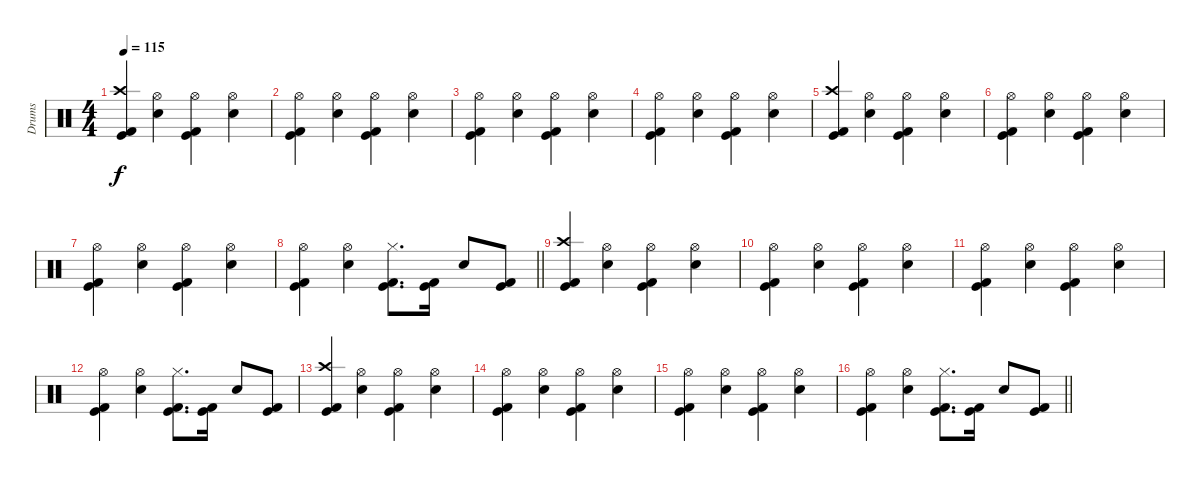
\track ("Drums" "Drums") {instrument percussion}
\staff {score}
\articulation defaults
\ts (4 4)
\section ("" "")
\tempo 115
\clef neutral
\ks c
("Kick (hit) 2" "Crash high (hit)" "Kick (hit)").4{dy f} ("Electric Snare (hit)" "Hi-Hat (open)").4 ("Kick (hit) 2" "Hi-Hat (open)" "Kick (hit)").4 ("Electric Snare (hit)" "Hi-Hat (open)").4 |
("Kick (hit) 2" "Hi-Hat (open)" "Kick (hit)").4 ("Electric Snare (hit)" "Hi-Hat (open)").4 ("Kick (hit) 2" "Hi-Hat (open)" "Kick (hit)").4 ("Electric Snare (hit)" "Hi-Hat (open)").4 |
("Kick (hit) 2" "Hi-Hat (open)" "Kick (hit)").4 ("Electric Snare (hit)" "Hi-Hat (open)").4 ("Kick (hit) 2" "Hi-Hat (open)" "Kick (hit)").4 ("Electric Snare (hit)" "Hi-Hat (open)").4 |
("Kick (hit) 2" "Hi-Hat (open)" "Kick (hit)").4 ("Electric Snare (hit)" "Hi-Hat (open)").4 ("Kick (hit) 2" "Hi-Hat (open)" "Kick (hit)").4 ("Electric Snare (hit)" "Hi-Hat (open)").4 |
("Kick (hit) 2" "Crash high (hit)" "Kick (hit)").4 ("Electric Snare (hit)" "Hi-Hat (open)").4 ("Kick (hit) 2" "Hi-Hat (open)" "Kick (hit)").4 ("Electric Snare (hit)" "Hi-Hat (open)").4 |
("Kick (hit) 2" "Hi-Hat (open)" "Kick (hit)").4 ("Electric Snare (hit)" "Hi-Hat (open)").4 ("Kick (hit) 2" "Hi-Hat (open)" "Kick (hit)").4 ("Electric Snare (hit)" "Hi-Hat (open)").4 |
("Kick (hit) 2" "Hi-Hat (open)" "Kick (hit)").4 ("Electric Snare (hit)" "Hi-Hat (open)").4 ("Kick (hit) 2" "Hi-Hat (open)" "Kick (hit)").4 ("Electric Snare (hit)" "Hi-Hat (open)").4 |
\barLineRight lightlight
("Kick (hit) 2" "Hi-Hat (open)" "Kick (hit)").4 ("Electric Snare (hit)" "Hi-Hat (open)").4 ("Kick (hit) 2" "Hi-Hat (closed)" "Kick (hit)").8{d} ("Kick (hit) 2" "Kick (hit)").16 "Electric Snare (hit)".8 ("Kick (hit) 2" "Kick (hit)").8 |
\section ("" "")
("Kick (hit) 2" "Crash high (hit)" "Kick (hit)").4 ("Electric Snare (hit)" "Hi-Hat (open)").4 ("Kick (hit) 2" "Hi-Hat (open)" "Kick (hit)").4 ("Electric Snare (hit)" "Hi-Hat (open)").4 |
("Kick (hit) 2" "Hi-Hat (open)" "Kick (hit)").4 ("Electric Snare (hit)" "Hi-Hat (open)").4 ("Kick (hit) 2" "Hi-Hat (open)" "Kick (hit)").4 ("Electric Snare (hit)" "Hi-Hat (open)").4 |
("Kick (hit) 2" "Hi-Hat (open)" "Kick (hit)").4 ("Electric Snare (hit)" "Hi-Hat (open)").4 ("Kick (hit) 2" "Hi-Hat (open)" "Kick (hit)").4 ("Electric Snare (hit)" "Hi-Hat (open)").4 |
("Kick (hit) 2" "Hi-Hat (open)" "Kick (hit)").4 ("Electric Snare (hit)" "Hi-Hat (open)").4 ("Kick (hit) 2" "Hi-Hat (closed)" "Kick (hit)").8{d} ("Kick (hit) 2" "Kick (hit)").16 "Electric Snare (hit)".8 ("Kick (hit) 2" "Kick (hit)").8 |
("Kick (hit) 2" "Crash high (hit)" "Kick (hit)").4 ("Electric Snare (hit)" "Hi-Hat (open)").4 ("Kick (hit) 2" "Hi-Hat (open)" "Kick (hit)").4 ("Electric Snare (hit)" "Hi-Hat (open)").4 |
("Kick (hit) 2" "Hi-Hat (open)" "Kick (hit)").4 ("Electric Snare (hit)" "Hi-Hat (open)").4 ("Kick (hit) 2" "Hi-Hat (open)" "Kick (hit)").4 ("Electric Snare (hit)" "Hi-Hat (open)").4 |
("Kick (hit) 2" "Hi-Hat (open)" "Kick (hit)").4 ("Electric Snare (hit)" "Hi-Hat (open)").4 ("Kick (hit) 2" "Hi-Hat (open)" "Kick (hit)").4 ("Electric Snare (hit)" "Hi-Hat (open)").4 |
\barLineRight lightlight
("Kick (hit) 2" "Hi-Hat (open)" "Kick (hit)").4 ("Electric Snare (hit)" "Hi-Hat (open)").4 ("Kick (hit) 2" "Hi-Hat (closed)" "Kick (hit)").8{d} ("Kick (hit) 2" "Kick (hit)").16 "Electric Snare (hit)".8 ("Kick (hit) 2" "Kick (hit)").8
